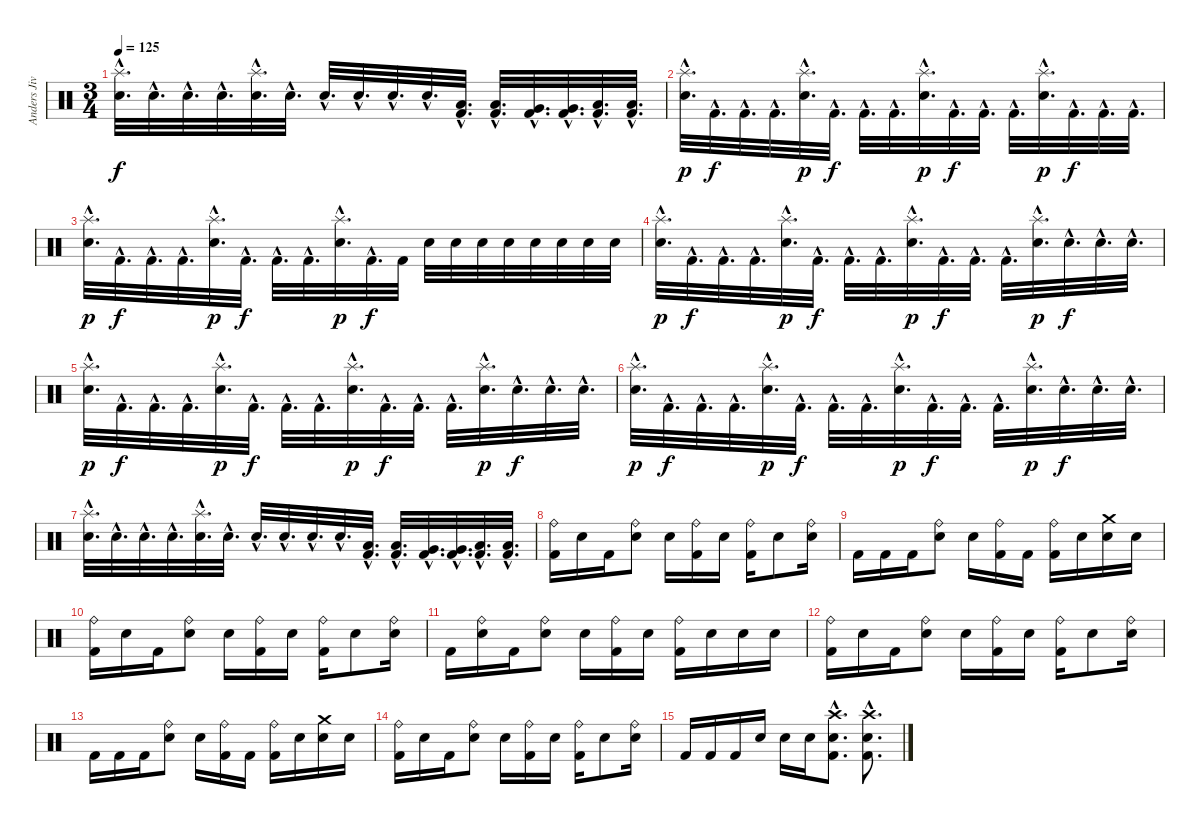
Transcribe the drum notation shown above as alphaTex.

\track ("Anders Jivarp" "Anders Jiv") {instrument percussion}
\staff {score}
\articulation defaults
\ts (3 4)
\tempo 125
\clef neutral
\ks c
("Splash (hit)"{hac} "Electric Snare (hit)"{hac}).32{d dy f} "Electric Snare (hit)"{hac}.32{d} "Electric Snare (hit)"{hac}.32{d} "Electric Snare (hit)"{hac}.32{d} ("Splash (hit)"{hac} "Electric Snare (hit)"{hac}).32{d} "Electric Snare (hit)"{hac}.32{d} "Electric Snare (hit)"{hac}.32{d} "Electric Snare (hit)"{hac}.32{d} "Electric Snare (hit)"{hac}.32{d} "Electric Snare (hit)"{hac}.32{d} ("Low Tom (hit)"{hac} "Kick (hit) 2"{hac}).32{d} ("Low Tom (hit)"{hac} "Kick (hit) 2"{hac}).32{d} ("Very Low Tom (hit)"{hac} "Kick (hit) 2"{hac}).32{d} ("Very Low Tom (hit)"{hac} "Kick (hit) 2"{hac}).32{d} ("Low Floor Tom (hit)"{hac} "Kick (hit) 2"{hac}).32{d} ("Low Floor Tom (hit)"{hac} "Kick (hit) 2"{hac}).32{d} |
("Splash (hit)"{hac} "Electric Snare (hit)"{hac}).32{d dy p} "Kick (hit) 2"{hac}.32{d dy f} "Kick (hit) 2"{hac}.32{d} "Kick (hit) 2"{hac}.32{d} ("Splash (hit)"{hac} "Electric Snare (hit)"{hac}).32{d dy p} "Kick (hit) 2"{hac}.32{d dy f} "Kick (hit) 2"{hac}.32{d} "Kick (hit) 2"{hac}.32{d} ("Splash (hit)"{hac} "Electric Snare (hit)"{hac}).32{d dy p} "Kick (hit) 2"{hac}.32{d dy f} "Kick (hit) 2"{hac}.32{d} "Kick (hit) 2"{hac}.32{d} ("Splash (hit)"{hac} "Electric Snare (hit)"{hac}).32{d dy p} "Kick (hit) 2"{hac}.32{d dy f} "Kick (hit) 2"{hac}.32{d} "Kick (hit) 2"{hac}.32{d} |
("Splash (hit)"{hac} "Electric Snare (hit)"{hac}).32{d dy p} "Kick (hit) 2"{hac}.32{d dy f} "Kick (hit) 2"{hac}.32{d} "Kick (hit) 2"{hac}.32{d} ("Splash (hit)"{hac} "Electric Snare (hit)"{hac}).32{d dy p} "Kick (hit) 2"{hac}.32{d dy f} "Kick (hit) 2"{hac}.32{d} "Kick (hit) 2"{hac}.32{d} ("Splash (hit)"{hac} "Electric Snare (hit)"{hac}).32{d dy p} "Kick (hit) 2"{hac}.32{d dy f} "Kick (hit) 2".32 "Electric Snare (hit)".32 "Electric Snare (hit)".32 "Electric Snare (hit)".32 "Electric Snare (hit)".32 "Electric Snare (hit)".32 "Electric Snare (hit)".32 "Electric Snare (hit)".32 "Electric Snare (hit)".32 |
("Splash (hit)"{hac} "Electric Snare (hit)"{hac}).32{d dy p} "Kick (hit) 2"{hac}.32{d dy f} "Kick (hit) 2"{hac}.32{d} "Kick (hit) 2"{hac}.32{d} ("Splash (hit)"{hac} "Electric Snare (hit)"{hac}).32{d dy p} "Kick (hit) 2"{hac}.32{d dy f} "Kick (hit) 2"{hac}.32{d} "Kick (hit) 2"{hac}.32{d} ("Splash (hit)"{hac} "Electric Snare (hit)"{hac}).32{d dy p} "Kick (hit) 2"{hac}.32{d dy f} "Kick (hit) 2"{hac}.32{d} "Kick (hit) 2"{hac}.32{d} ("Splash (hit)"{hac} "Electric Snare (hit)"{hac}).32{d dy p} "Electric Snare (hit)"{hac}.32{d dy f} "Electric Snare (hit)"{hac}.32{d} "Electric Snare (hit)"{hac}.32{d} |
("Splash (hit)"{hac} "Electric Snare (hit)"{hac}).32{d dy p} "Kick (hit) 2"{hac}.32{d dy f} "Kick (hit) 2"{hac}.32{d} "Kick (hit) 2"{hac}.32{d} ("Splash (hit)"{hac} "Electric Snare (hit)"{hac}).32{d dy p} "Kick (hit) 2"{hac}.32{d dy f} "Kick (hit) 2"{hac}.32{d} "Kick (hit) 2"{hac}.32{d} ("Splash (hit)"{hac} "Electric Snare (hit)"{hac}).32{d dy p} "Kick (hit) 2"{hac}.32{d dy f} "Kick (hit) 2"{hac}.32{d} "Kick (hit) 2"{hac}.32{d} ("Splash (hit)"{hac} "Electric Snare (hit)"{hac}).32{d dy p} "Electric Snare (hit)"{hac}.32{d dy f} "Electric Snare (hit)"{hac}.32{d} "Electric Snare (hit)"{hac}.32{d} |
("Splash (hit)"{hac} "Electric Snare (hit)"{hac}).32{d dy p} "Kick (hit) 2"{hac}.32{d dy f} "Kick (hit) 2"{hac}.32{d} "Kick (hit) 2"{hac}.32{d} ("Splash (hit)"{hac} "Electric Snare (hit)"{hac}).32{d dy p} "Kick (hit) 2"{hac}.32{d dy f} "Kick (hit) 2"{hac}.32{d} "Kick (hit) 2"{hac}.32{d} ("Splash (hit)"{hac} "Electric Snare (hit)"{hac}).32{d dy p} "Kick (hit) 2"{hac}.32{d dy f} "Kick (hit) 2"{hac}.32{d} "Kick (hit) 2"{hac}.32{d} ("Splash (hit)"{hac} "Electric Snare (hit)"{hac}).32{d dy p} "Electric Snare (hit)"{hac}.32{d dy f} "Electric Snare (hit)"{hac}.32{d} "Electric Snare (hit)"{hac}.32{d} |
("Splash (hit)"{hac} "Electric Snare (hit)"{hac}).32{d} "Electric Snare (hit)"{hac}.32{d} "Electric Snare (hit)"{hac}.32{d} "Electric Snare (hit)"{hac}.32{d} ("Splash (hit)"{hac} "Electric Snare (hit)"{hac}).32{d} "Electric Snare (hit)"{hac}.32{d} "Electric Snare (hit)"{hac}.32{d} "Electric Snare (hit)"{hac}.32{d} "Electric Snare (hit)"{hac}.32{d} "Electric Snare (hit)"{hac}.32{d} ("Low Tom (hit)"{hac} "Kick (hit) 2"{hac}).32{d} ("Low Tom (hit)"{hac} "Kick (hit) 2"{hac}).32{d} ("Very Low Tom (hit)"{hac} "Kick (hit) 2"{hac}).32{d} ("Very Low Tom (hit)"{hac} "Kick (hit) 2"{hac}).32{d} ("Low Floor Tom (hit)"{hac} "Kick (hit) 2"{hac}).32{d} ("Low Floor Tom (hit)"{hac} "Kick (hit) 2"{hac}).32{d} |
("Ride (bell)" "Kick (hit) 2").16 "Electric Snare (hit)".16 "Kick (hit) 2".16 ("Ride (bell)" "Electric Snare (hit)").8 "Electric Snare (hit)".16 ("Ride (bell)" "Kick (hit) 2").16 "Electric Snare (hit)".16 ("Ride (bell)" "Kick (hit) 2").16 "Electric Snare (hit)".8 ("Ride (bell)" "Electric Snare (hit)").16 |
"Kick (hit) 2".16 "Kick (hit) 2".16 "Kick (hit) 2".16 ("Ride (bell)" "Electric Snare (hit)").8 "Electric Snare (hit)".16 ("Ride (bell)" "Kick (hit) 2").16 "Kick (hit) 2".16 ("Ride (bell)" "Kick (hit) 2").16 "Electric Snare (hit)".16 ("Crash medium (hit)" "Electric Snare (hit)").16 "Electric Snare (hit)".16 |
("Ride (bell)" "Kick (hit) 2").16 "Electric Snare (hit)".16 "Kick (hit) 2".16 ("Ride (bell)" "Electric Snare (hit)").8 "Electric Snare (hit)".16 ("Ride (bell)" "Kick (hit) 2").16 "Electric Snare (hit)".16 ("Ride (bell)" "Kick (hit) 2").16 "Electric Snare (hit)".8 ("Ride (bell)" "Electric Snare (hit)").16 |
"Kick (hit) 2".16 ("Ride (bell)" "Electric Snare (hit)").16 "Kick (hit) 2".16 ("Ride (bell)" "Electric Snare (hit)").8 "Electric Snare (hit)".16 ("Ride (bell)" "Kick (hit) 2").16 "Electric Snare (hit)".16 ("Ride (bell)" "Kick (hit) 2").16 "Electric Snare (hit)".16 "Electric Snare (hit)".16 "Electric Snare (hit)".16 |
("Ride (bell)" "Kick (hit) 2").16 "Electric Snare (hit)".16 "Kick (hit) 2".16 ("Ride (bell)" "Electric Snare (hit)").8 "Electric Snare (hit)".16 ("Ride (bell)" "Kick (hit) 2").16 "Electric Snare (hit)".16 ("Ride (bell)" "Kick (hit) 2").16 "Electric Snare (hit)".8 ("Ride (bell)" "Electric Snare (hit)").16 |
"Kick (hit) 2".16 "Kick (hit) 2".16 "Kick (hit) 2".16 ("Ride (bell)" "Electric Snare (hit)").8 "Electric Snare (hit)".16 ("Ride (bell)" "Kick (hit) 2").16 "Kick (hit) 2".16 ("Ride (bell)" "Kick (hit) 2").16 "Electric Snare (hit)".16 ("Crash medium (hit)" "Electric Snare (hit)").16 "Electric Snare (hit)".16 |
("Ride (bell)" "Kick (hit) 2").16 "Electric Snare (hit)".16 "Kick (hit) 2".16 ("Ride (bell)" "Electric Snare (hit)").8 "Electric Snare (hit)".16 ("Ride (bell)" "Kick (hit) 2").16 "Electric Snare (hit)".16 ("Ride (bell)" "Kick (hit) 2").16 "Electric Snare (hit)".8 ("Ride (bell)" "Electric Snare (hit)").16 |
"Kick (hit) 2".16 "Kick (hit) 2".16 "Kick (hit) 2".16 "Electric Snare (hit)".16 "Electric Snare (hit)".16 "Electric Snare (hit)".16 ("Crash high (hit)"{hac} "Electric Snare (hit)"{hac} "Kick (hit) 2"{hac}).8{d} ("Crash high (hit)"{hac} "Electric Snare (hit)"{hac} "Kick (hit) 2"{hac}).8{d}
